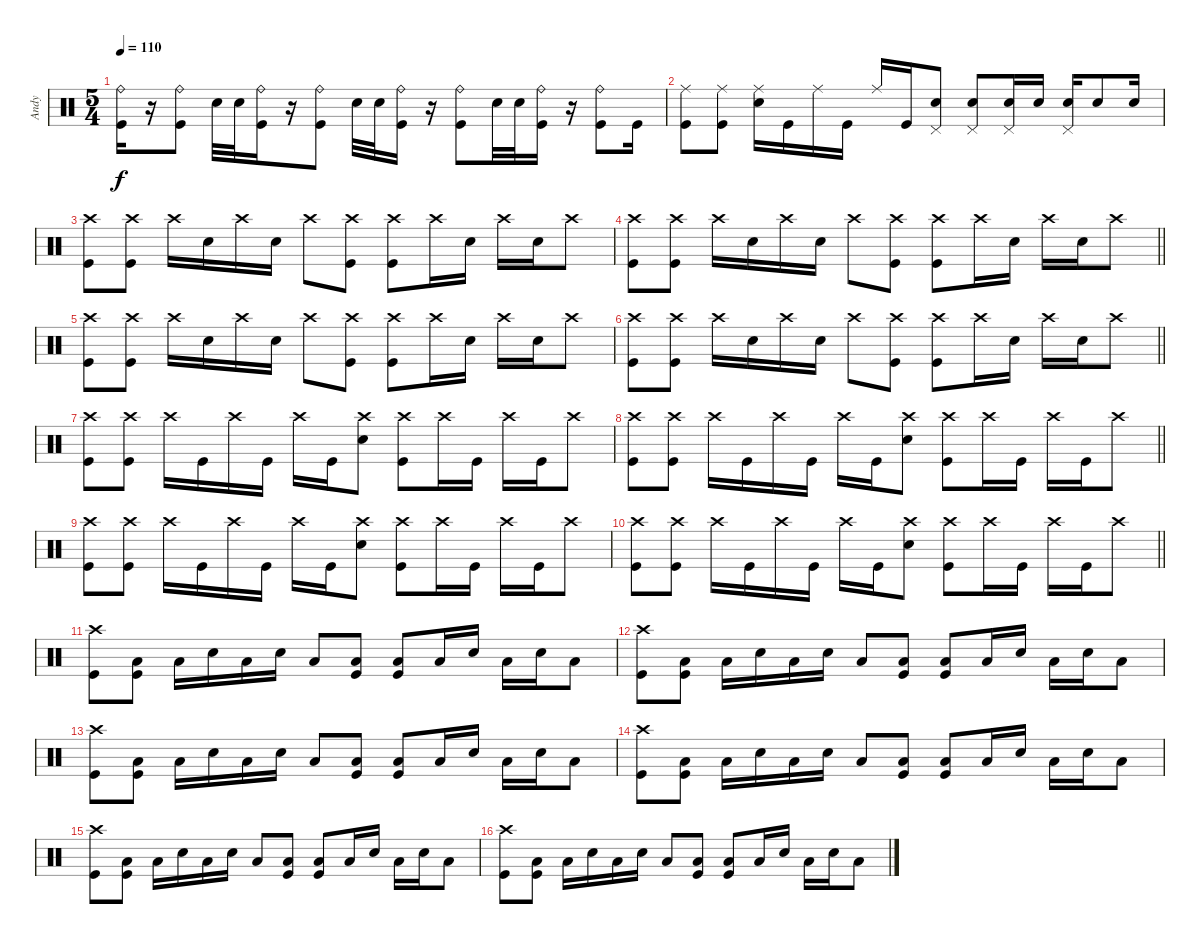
\track ("Andy" "Andy") {instrument percussion}
\staff {score}
\articulation defaults
\ts (5 4)
\tempo 110
\clef neutral
\ks c
("Kick (hit)" "Ride (bell)").16{dy f} r.16 ("Kick (hit)" "Ride (bell)").8 "Snare (hit) 2".32 "Snare (hit) 2".32 ("Kick (hit)" "Ride (bell)").16 r.16 ("Kick (hit)" "Ride (bell)").8 "Snare (hit) 2".32 "Snare (hit) 2".32 ("Kick (hit)" "Ride (bell)").16 r.16 ("Kick (hit)" "Ride (bell)").8 "Snare (hit) 2".32 "Snare (hit) 2".32 ("Kick (hit)" "Ride (bell)").16 r.16 ("Kick (hit)" "Ride (bell)").8 "Kick (hit)".16 |
("Kick (hit)" "Ride (middle)").8 ("Kick (hit)" "Ride (middle)").8 ("Snare (hit) 2" "Ride (middle)").16 "Kick (hit)".16 "Ride (middle)".16 "Kick (hit)".16 "Ride (middle)".16 "Kick (hit)".16 ("Snare (hit) 2" "Pedal Hi-Hat (hit)").8 ("Snare (hit) 2" "Pedal Hi-Hat (hit)").8 ("Snare (hit) 2" "Pedal Hi-Hat (hit)").16 "Snare (hit) 2".16 ("Snare (hit) 2" "Pedal Hi-Hat (hit)").16 "Snare (hit) 2".8 "Snare (hit) 2".16 |
("Crash high (hit)" "Kick (hit)").8 ("Crash high (hit)" "Kick (hit)").8 "Crash high (hit)".16 "Snare (hit) 2".16 "Crash high (hit)".16 "Snare (hit) 2".16 "Crash high (hit)".8 ("Kick (hit)" "Crash high (hit)").8 ("Kick (hit)" "Crash high (hit)").8 "Crash high (hit)".16 "Snare (hit) 2".16 "Crash high (hit)".16 "Snare (hit) 2".16 "Crash high (hit)".8 |
\barLineRight lightlight
("Crash high (hit)" "Kick (hit)").8 ("Crash high (hit)" "Kick (hit)").8 "Crash high (hit)".16 "Snare (hit) 2".16 "Crash high (hit)".16 "Snare (hit) 2".16 "Crash high (hit)".8 ("Kick (hit)" "Crash high (hit)").8 ("Kick (hit)" "Crash high (hit)").8 "Crash high (hit)".16 "Snare (hit) 2".16 "Crash high (hit)".16 "Snare (hit) 2".16 "Crash high (hit)".8 |
("Crash high (hit)" "Kick (hit)").8 ("Crash high (hit)" "Kick (hit)").8 "Crash high (hit)".16 "Snare (hit) 2".16 "Crash high (hit)".16 "Snare (hit) 2".16 "Crash high (hit)".8 ("Kick (hit)" "Crash high (hit)").8 ("Kick (hit)" "Crash high (hit)").8 "Crash high (hit)".16 "Snare (hit) 2".16 "Crash high (hit)".16 "Snare (hit) 2".16 "Crash high (hit)".8 |
\barLineRight lightlight
("Crash high (hit)" "Kick (hit)").8 ("Crash high (hit)" "Kick (hit)").8 "Crash high (hit)".16 "Snare (hit) 2".16 "Crash high (hit)".16 "Snare (hit) 2".16 "Crash high (hit)".8 ("Kick (hit)" "Crash high (hit)").8 ("Kick (hit)" "Crash high (hit)").8 "Crash high (hit)".16 "Snare (hit) 2".16 "Crash high (hit)".16 "Snare (hit) 2".16 "Crash high (hit)".8 |
("Kick (hit)" "Crash high (hit)").8 ("Kick (hit)" "Crash high (hit)").8 "Crash high (hit)".16 "Kick (hit)".16 "Crash high (hit)".16 "Kick (hit)".16 "Crash high (hit)".16 "Kick (hit)".16 ("Snare (hit) 2" "Crash high (hit)").8 ("Kick (hit)" "Crash high (hit)").8 "Crash high (hit)".16 "Kick (hit)".16 "Crash high (hit)".16 "Kick (hit)".16 "Crash high (hit)".8 |
\barLineRight lightlight
("Kick (hit)" "Crash high (hit)").8 ("Kick (hit)" "Crash high (hit)").8 "Crash high (hit)".16 "Kick (hit)".16 "Crash high (hit)".16 "Kick (hit)".16 "Crash high (hit)".16 "Kick (hit)".16 ("Snare (hit) 2" "Crash high (hit)").8 ("Kick (hit)" "Crash high (hit)").8 "Crash high (hit)".16 "Kick (hit)".16 "Crash high (hit)".16 "Kick (hit)".16 "Crash high (hit)".8 |
("Kick (hit)" "Crash high (hit)").8 ("Kick (hit)" "Crash high (hit)").8 "Crash high (hit)".16 "Kick (hit)".16 "Crash high (hit)".16 "Kick (hit)".16 "Crash high (hit)".16 "Kick (hit)".16 ("Snare (hit) 2" "Crash high (hit)").8 ("Kick (hit)" "Crash high (hit)").8 "Crash high (hit)".16 "Kick (hit)".16 "Crash high (hit)".16 "Kick (hit)".16 "Crash high (hit)".8 |
\barLineRight lightlight
("Kick (hit)" "Crash high (hit)").8 ("Kick (hit)" "Crash high (hit)").8 "Crash high (hit)".16 "Kick (hit)".16 "Crash high (hit)".16 "Kick (hit)".16 "Crash high (hit)".16 "Kick (hit)".16 ("Snare (hit) 2" "Crash high (hit)").8 ("Kick (hit)" "Crash high (hit)").8 "Crash high (hit)".16 "Kick (hit)".16 "Crash high (hit)".16 "Kick (hit)".16 "Crash high (hit)".8 |
\section ("" "")
("Crash high (hit)" "Kick (hit)").8 ("Low Floor Tom (hit)" "Kick (hit)").8 "Low Floor Tom (hit)".16 "Snare (hit) 2".16 "Low Floor Tom (hit)".16 "Snare (hit) 2".16 "Low Floor Tom (hit)".8 ("Kick (hit)" "Low Floor Tom (hit)").8 ("Kick (hit)" "Low Floor Tom (hit)").8 "Low Floor Tom (hit)".16 "Snare (hit) 2".16 "Low Floor Tom (hit)".16 "Snare (hit) 2".16 "Low Floor Tom (hit)".8 |
("Crash high (hit)" "Kick (hit)").8 ("Low Floor Tom (hit)" "Kick (hit)").8 "Low Floor Tom (hit)".16 "Snare (hit) 2".16 "Low Floor Tom (hit)".16 "Snare (hit) 2".16 "Low Floor Tom (hit)".8 ("Kick (hit)" "Low Floor Tom (hit)").8 ("Kick (hit)" "Low Floor Tom (hit)").8 "Low Floor Tom (hit)".16 "Snare (hit) 2".16 "Low Floor Tom (hit)".16 "Snare (hit) 2".16 "Low Floor Tom (hit)".8 |
("Crash high (hit)" "Kick (hit)").8 ("Low Floor Tom (hit)" "Kick (hit)").8 "Low Floor Tom (hit)".16 "Snare (hit) 2".16 "Low Floor Tom (hit)".16 "Snare (hit) 2".16 "Low Floor Tom (hit)".8 ("Kick (hit)" "Low Floor Tom (hit)").8 ("Kick (hit)" "Low Floor Tom (hit)").8 "Low Floor Tom (hit)".16 "Snare (hit) 2".16 "Low Floor Tom (hit)".16 "Snare (hit) 2".16 "Low Floor Tom (hit)".8 |
("Crash high (hit)" "Kick (hit)").8 ("Low Floor Tom (hit)" "Kick (hit)").8 "Low Floor Tom (hit)".16 "Snare (hit) 2".16 "Low Floor Tom (hit)".16 "Snare (hit) 2".16 "Low Floor Tom (hit)".8 ("Kick (hit)" "Low Floor Tom (hit)").8 ("Kick (hit)" "Low Floor Tom (hit)").8 "Low Floor Tom (hit)".16 "Snare (hit) 2".16 "Low Floor Tom (hit)".16 "Snare (hit) 2".16 "Low Floor Tom (hit)".8 |
("Crash high (hit)" "Kick (hit)").8 ("Low Floor Tom (hit)" "Kick (hit)").8 "Low Floor Tom (hit)".16 "Snare (hit) 2".16 "Low Floor Tom (hit)".16 "Snare (hit) 2".16 "Low Floor Tom (hit)".8 ("Kick (hit)" "Low Floor Tom (hit)").8 ("Kick (hit)" "Low Floor Tom (hit)").8 "Low Floor Tom (hit)".16 "Snare (hit) 2".16 "Low Floor Tom (hit)".16 "Snare (hit) 2".16 "Low Floor Tom (hit)".8 |
("Crash high (hit)" "Kick (hit)").8 ("Low Floor Tom (hit)" "Kick (hit)").8 "Low Floor Tom (hit)".16 "Snare (hit) 2".16 "Low Floor Tom (hit)".16 "Snare (hit) 2".16 "Low Floor Tom (hit)".8 ("Kick (hit)" "Low Floor Tom (hit)").8 ("Kick (hit)" "Low Floor Tom (hit)").8 "Low Floor Tom (hit)".16 "Snare (hit) 2".16 "Low Floor Tom (hit)".16 "Snare (hit) 2".16 "Low Floor Tom (hit)".8
